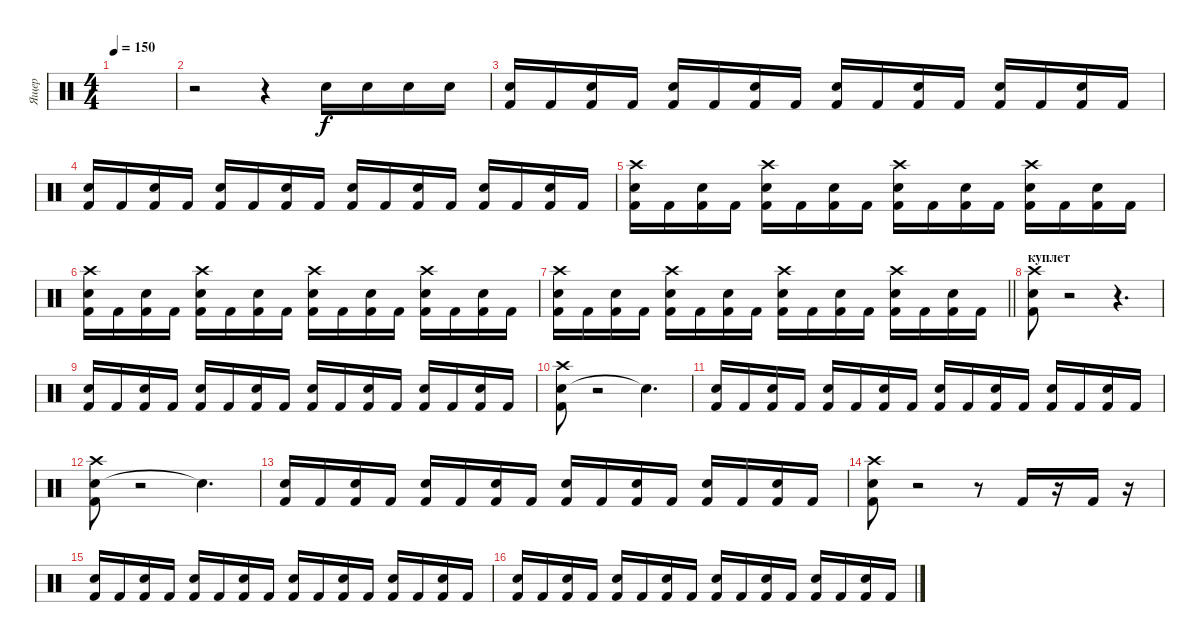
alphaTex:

\track ("Ящер" "Ящер") {instrument percussion}
\staff {score}
\articulation defaults
\ts (4 4)
\tempo 150
\clef neutral
\ks c
|
r.2 r.4 "Snare (hit) 2".16 "Snare (hit) 2".16 "Snare (hit) 2".16 "Snare (hit) 2".16 |
("Kick (hit) 2" "Snare (hit) 2").16 "Kick (hit) 2".16 ("Kick (hit) 2" "Snare (hit) 2").16 "Kick (hit) 2".16 ("Kick (hit) 2" "Snare (hit) 2").16 "Kick (hit) 2".16 ("Kick (hit) 2" "Snare (hit) 2").16 "Kick (hit) 2".16 ("Kick (hit) 2" "Snare (hit) 2").16 "Kick (hit) 2".16 ("Kick (hit) 2" "Snare (hit) 2").16 "Kick (hit) 2".16 ("Kick (hit) 2" "Snare (hit) 2").16 "Kick (hit) 2".16 ("Kick (hit) 2" "Snare (hit) 2").16 "Kick (hit) 2".16 |
("Kick (hit) 2" "Snare (hit) 2").16 "Kick (hit) 2".16 ("Kick (hit) 2" "Snare (hit) 2").16 "Kick (hit) 2".16 ("Kick (hit) 2" "Snare (hit) 2").16 "Kick (hit) 2".16 ("Kick (hit) 2" "Snare (hit) 2").16 "Kick (hit) 2".16 ("Kick (hit) 2" "Snare (hit) 2").16 "Kick (hit) 2".16 ("Kick (hit) 2" "Snare (hit) 2").16 "Kick (hit) 2".16 ("Kick (hit) 2" "Snare (hit) 2").16 "Kick (hit) 2".16 ("Kick (hit) 2" "Snare (hit) 2").16 "Kick (hit) 2".16 |
("Kick (hit) 2" "Snare (hit) 2" "Crash high (hit)").16 "Kick (hit) 2".16 ("Kick (hit) 2" "Snare (hit) 2").16 "Kick (hit) 2".16 ("Kick (hit) 2" "Snare (hit) 2" "Crash high (hit)").16 "Kick (hit) 2".16 ("Kick (hit) 2" "Snare (hit) 2").16 "Kick (hit) 2".16 ("Kick (hit) 2" "Snare (hit) 2" "Crash high (hit)").16 "Kick (hit) 2".16 ("Kick (hit) 2" "Snare (hit) 2").16 "Kick (hit) 2".16 ("Kick (hit) 2" "Snare (hit) 2" "Crash high (hit)").16 "Kick (hit) 2".16 ("Kick (hit) 2" "Snare (hit) 2").16 "Kick (hit) 2".16 |
("Kick (hit) 2" "Snare (hit) 2" "Crash high (hit)").16 "Kick (hit) 2".16 ("Kick (hit) 2" "Snare (hit) 2").16 "Kick (hit) 2".16 ("Kick (hit) 2" "Snare (hit) 2" "Crash high (hit)").16 "Kick (hit) 2".16 ("Kick (hit) 2" "Snare (hit) 2").16 "Kick (hit) 2".16 ("Kick (hit) 2" "Snare (hit) 2" "Crash high (hit)").16 "Kick (hit) 2".16 ("Kick (hit) 2" "Snare (hit) 2").16 "Kick (hit) 2".16 ("Kick (hit) 2" "Snare (hit) 2" "Crash high (hit)").16 "Kick (hit) 2".16 ("Kick (hit) 2" "Snare (hit) 2").16 "Kick (hit) 2".16 |
\barLineRight lightlight
("Kick (hit) 2" "Snare (hit) 2" "Crash high (hit)").16 "Kick (hit) 2".16 ("Kick (hit) 2" "Snare (hit) 2").16 "Kick (hit) 2".16 ("Kick (hit) 2" "Snare (hit) 2" "Crash high (hit)").16 "Kick (hit) 2".16 ("Kick (hit) 2" "Snare (hit) 2").16 "Kick (hit) 2".16 ("Kick (hit) 2" "Snare (hit) 2" "Crash high (hit)").16 "Kick (hit) 2".16 ("Kick (hit) 2" "Snare (hit) 2").16 "Kick (hit) 2".16 ("Kick (hit) 2" "Snare (hit) 2" "Crash high (hit)").16 "Kick (hit) 2".16 ("Kick (hit) 2" "Snare (hit) 2").16 "Kick (hit) 2".16 |
\section ("" "куплет")
("Snare (hit) 2" "Crash high (hit)" "Kick (hit) 2").8 r.2 r.4{d} |
("Kick (hit) 2" "Snare (hit) 2").16 "Kick (hit) 2".16 ("Kick (hit) 2" "Snare (hit) 2").16 "Kick (hit) 2".16 ("Kick (hit) 2" "Snare (hit) 2").16 "Kick (hit) 2".16 ("Kick (hit) 2" "Snare (hit) 2").16 "Kick (hit) 2".16 ("Kick (hit) 2" "Snare (hit) 2").16 "Kick (hit) 2".16 ("Kick (hit) 2" "Snare (hit) 2").16 "Kick (hit) 2".16 ("Kick (hit) 2" "Snare (hit) 2").16 "Kick (hit) 2".16 ("Kick (hit) 2" "Snare (hit) 2").16 "Kick (hit) 2".16 |
("Snare (hit) 2" "Crash high (hit)" "Kick (hit) 2").8 r.2 "Snare (hit)"{t}.4{d} |
("Kick (hit) 2" "Snare (hit) 2").16 "Kick (hit) 2".16 ("Kick (hit) 2" "Snare (hit) 2").16 "Kick (hit) 2".16 ("Kick (hit) 2" "Snare (hit) 2").16 "Kick (hit) 2".16 ("Kick (hit) 2" "Snare (hit) 2").16 "Kick (hit) 2".16 ("Kick (hit) 2" "Snare (hit) 2").16 "Kick (hit) 2".16 ("Kick (hit) 2" "Snare (hit) 2").16 "Kick (hit) 2".16 ("Kick (hit) 2" "Snare (hit) 2").16 "Kick (hit) 2".16 ("Kick (hit) 2" "Snare (hit) 2").16 "Kick (hit) 2".16 |
("Snare (hit) 2" "Crash high (hit)" "Kick (hit) 2").8 r.2 "Snare (hit)"{t}.4{d} |
("Kick (hit) 2" "Snare (hit) 2").16 "Kick (hit) 2".16 ("Kick (hit) 2" "Snare (hit) 2").16 "Kick (hit) 2".16 ("Kick (hit) 2" "Snare (hit) 2").16 "Kick (hit) 2".16 ("Kick (hit) 2" "Snare (hit) 2").16 "Kick (hit) 2".16 ("Kick (hit) 2" "Snare (hit) 2").16 "Kick (hit) 2".16 ("Kick (hit) 2" "Snare (hit) 2").16 "Kick (hit) 2".16 ("Kick (hit) 2" "Snare (hit) 2").16 "Kick (hit) 2".16 ("Kick (hit) 2" "Snare (hit) 2").16 "Kick (hit) 2".16 |
("Snare (hit) 2" "Crash high (hit)" "Kick (hit) 2").8 r.2 r.8 "Kick (hit) 2".16 r.16 "Kick (hit) 2".16 r.16 |
("Kick (hit) 2" "Snare (hit) 2").16 "Kick (hit) 2".16 ("Kick (hit) 2" "Snare (hit) 2").16 "Kick (hit) 2".16 ("Kick (hit) 2" "Snare (hit) 2").16 "Kick (hit) 2".16 ("Kick (hit) 2" "Snare (hit) 2").16 "Kick (hit) 2".16 ("Kick (hit) 2" "Snare (hit) 2").16 "Kick (hit) 2".16 ("Kick (hit) 2" "Snare (hit) 2").16 "Kick (hit) 2".16 ("Kick (hit) 2" "Snare (hit) 2").16 "Kick (hit) 2".16 ("Kick (hit) 2" "Snare (hit) 2").16 "Kick (hit) 2".16 |
("Kick (hit) 2" "Snare (hit) 2").16 "Kick (hit) 2".16 ("Kick (hit) 2" "Snare (hit) 2").16 "Kick (hit) 2".16 ("Kick (hit) 2" "Snare (hit) 2").16 "Kick (hit) 2".16 ("Kick (hit) 2" "Snare (hit) 2").16 "Kick (hit) 2".16 ("Kick (hit) 2" "Snare (hit) 2").16 "Kick (hit) 2".16 ("Kick (hit) 2" "Snare (hit) 2").16 "Kick (hit) 2".16 ("Kick (hit) 2" "Snare (hit) 2").16 "Kick (hit) 2".16 ("Kick (hit) 2" "Snare (hit) 2").16 "Kick (hit) 2".16
